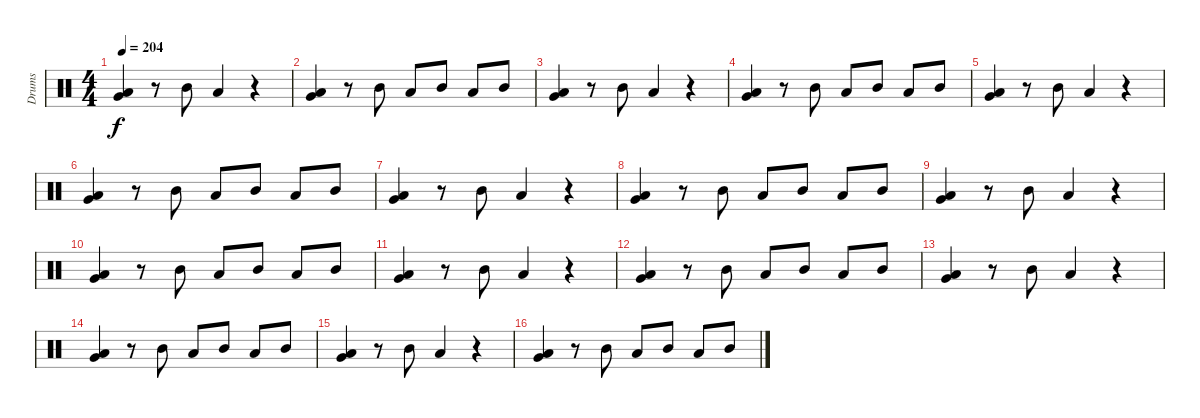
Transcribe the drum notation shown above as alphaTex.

\track ("Drums" "Drums") {instrument percussion}
\staff {score}
\articulation defaults
\ts (4 4)
\tempo 204
\clef neutral
\ks c
("Low Tom (hit)" "Very Low Tom (hit)").4{dy f} r.8 "Mid Tom (hit)".8 "Low Tom (hit)".4 r.4 |
("Low Tom (hit)" "Very Low Tom (hit)").4 r.8 "Mid Tom (hit)".8 "Low Tom (hit)".8 "Mid Tom (hit)".8 "Low Tom (hit)".8 "Mid Tom (hit)".8 |
("Very Low Tom (hit)" "Low Tom (hit)").4 r.8 "Mid Tom (hit)".8 "Low Tom (hit)".4 r.4 |
("Low Tom (hit)" "Very Low Tom (hit)").4 r.8 "Mid Tom (hit)".8 "Low Tom (hit)".8 "Mid Tom (hit)".8 "Low Tom (hit)".8 "Mid Tom (hit)".8 |
("Very Low Tom (hit)" "Low Tom (hit)").4 r.8 "Mid Tom (hit)".8 "Low Tom (hit)".4 r.4 |
("Low Tom (hit)" "Very Low Tom (hit)").4 r.8 "Mid Tom (hit)".8 "Low Tom (hit)".8 "Mid Tom (hit)".8 "Low Tom (hit)".8 "Mid Tom (hit)".8 |
("Low Tom (hit)" "Very Low Tom (hit)").4 r.8 "Mid Tom (hit)".8 "Low Tom (hit)".4 r.4 |
("Low Tom (hit)" "Very Low Tom (hit)").4 r.8 "Mid Tom (hit)".8 "Low Tom (hit)".8 "Mid Tom (hit)".8 "Low Tom (hit)".8 "Mid Tom (hit)".8 |
("Low Tom (hit)" "Very Low Tom (hit)").4 r.8 "Mid Tom (hit)".8 "Low Tom (hit)".4 r.4 |
("Low Tom (hit)" "Very Low Tom (hit)").4 r.8 "Mid Tom (hit)".8 "Low Tom (hit)".8 "Mid Tom (hit)".8 "Low Tom (hit)".8 "Mid Tom (hit)".8 |
("Low Tom (hit)" "Very Low Tom (hit)").4 r.8 "Mid Tom (hit)".8 "Low Tom (hit)".4 r.4 |
("Very Low Tom (hit)" "Low Tom (hit)").4 r.8 "Mid Tom (hit)".8 "Low Tom (hit)".8 "Mid Tom (hit)".8 "Low Tom (hit)".8 "Mid Tom (hit)".8 |
("Low Tom (hit)" "Very Low Tom (hit)").4 r.8 "Mid Tom (hit)".8 "Low Tom (hit)".4 r.4 |
("Low Tom (hit)" "Very Low Tom (hit)").4 r.8 "Mid Tom (hit)".8 "Low Tom (hit)".8 "Mid Tom (hit)".8 "Low Tom (hit)".8 "Mid Tom (hit)".8 |
("Very Low Tom (hit)" "Low Tom (hit)").4 r.8 "Mid Tom (hit)".8 "Low Tom (hit)".4 r.4 |
("Very Low Tom (hit)" "Low Tom (hit)").4 r.8 "Mid Tom (hit)".8 "Low Tom (hit)".8 "Mid Tom (hit)".8 "Low Tom (hit)".8 "Mid Tom (hit)".8
